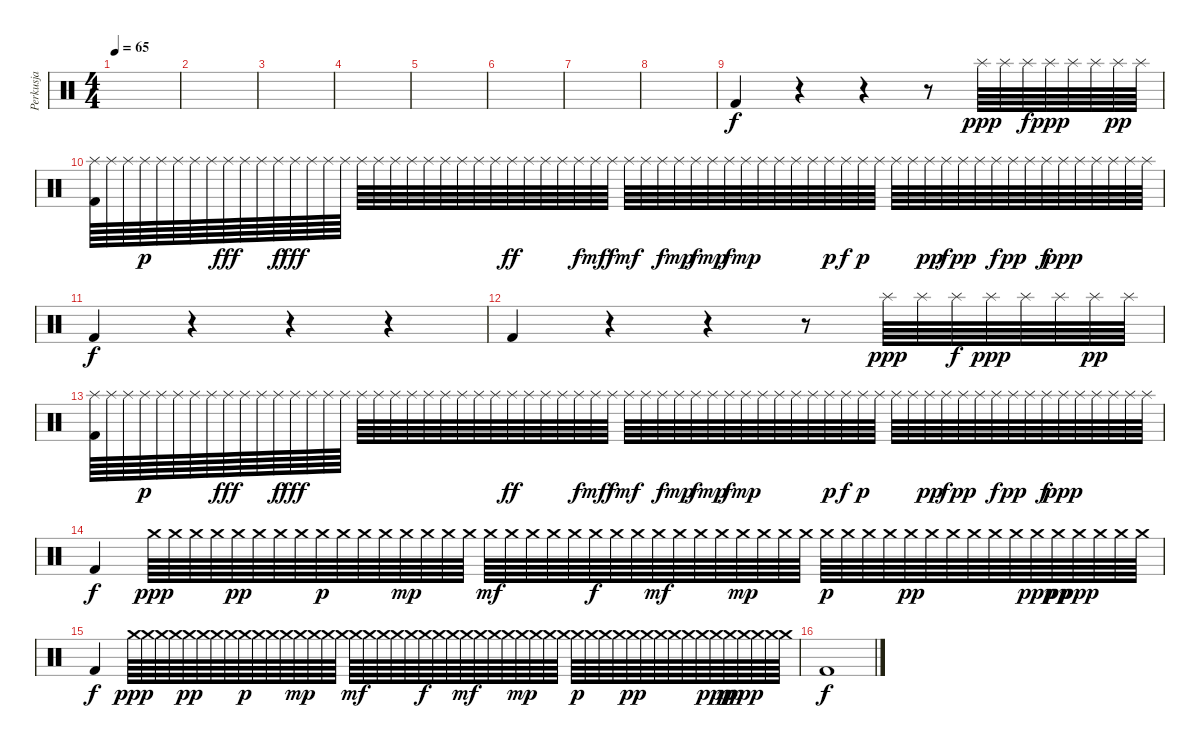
\track ("Perkusja" "Perkusja") {instrument percussion}
\staff {score}
\articulation defaults
\ts (4 4)
\tempo 65
\clef neutral
\ks c
|
|
|
|
|
|
|
|
"Kick (hit) 2".4 r.4 r.4 r.8 "Splash (hit)".64{dy ppp} "Splash (hit)".64 "Splash (hit)".64{dy f} "Splash (hit)".64{dy ppp} "Splash (hit)".64 "Splash (hit)".64 "Splash (hit)".64{dy pp} "Splash (hit)".64 |
("Kick (hit) 2" "Splash (hit)").64 "Splash (hit)".64 "Splash (hit)".64 "Splash (hit)".64{dy p} "Splash (hit)".64 "Splash (hit)".64 "Splash (hit)".64 "Splash (hit)".64 "Splash (hit)".64{dy fff} "Splash (hit)".64 "Splash (hit)".64 "Splash (hit)".64{dy f} "Splash (hit)".64{dy fff} "Splash (hit)".64 "Splash (hit)".64 "Splash (hit)".64 "Splash (hit)".64 "Splash (hit)".64 "Splash (hit)".64 "Splash (hit)".64 "Splash (hit)".64 "Splash (hit)".64 "Splash (hit)".64 "Splash (hit)".64 "Splash (hit)".64 "Splash (hit)".64{dy ff} "Splash (hit)".64 "Splash (hit)".64 "Splash (hit)".64 "Splash (hit)".64{dy f} "Splash (hit)".64{dy mf} "Splash (hit)".64{dy f} "Splash (hit)".64{dy mf} "Splash (hit)".64 "Splash (hit)".64{dy f} "Splash (hit)".64{dy mp} "Splash (hit)".64{dy f} "Splash (hit)".64{dy mp} "Splash (hit)".64{dy f} "Splash (hit)".64{dy mp} "Splash (hit)".64 "Splash (hit)".64 "Splash (hit)".64 "Splash (hit)".64 "Splash (hit)".64{dy p} "Splash (hit)".64{dy f} "Splash (hit)".64{dy p} "Splash (hit)".64 "Splash (hit)".64 "Splash (hit)".64 "Splash (hit)".64{dy pp} "Splash (hit)".64{dy f} "Splash (hit)".64{dy pp} "Splash (hit)".64 "Splash (hit)".64{dy f} "Splash (hit)".64{dy pp} "Splash (hit)".64 "Splash (hit)".64{dy f} "Splash (hit)".64{dy ppp} "Splash (hit)".64 "Splash (hit)".64 "Splash (hit)".64 "Splash (hit)".64 "Splash (hit)".64 |
"Kick (hit) 2".4{dy f} r.4 r.4 r.4 |
"Kick (hit) 2".4 r.4 r.4 r.8 "Splash (hit)".64{dy ppp} "Splash (hit)".64 "Splash (hit)".64{dy f} "Splash (hit)".64{dy ppp} "Splash (hit)".64 "Splash (hit)".64 "Splash (hit)".64{dy pp} "Splash (hit)".64 |
("Kick (hit) 2" "Splash (hit)").64 "Splash (hit)".64 "Splash (hit)".64 "Splash (hit)".64{dy p} "Splash (hit)".64 "Splash (hit)".64 "Splash (hit)".64 "Splash (hit)".64 "Splash (hit)".64{dy fff} "Splash (hit)".64 "Splash (hit)".64 "Splash (hit)".64{dy f} "Splash (hit)".64{dy fff} "Splash (hit)".64 "Splash (hit)".64 "Splash (hit)".64 "Splash (hit)".64 "Splash (hit)".64 "Splash (hit)".64 "Splash (hit)".64 "Splash (hit)".64 "Splash (hit)".64 "Splash (hit)".64 "Splash (hit)".64 "Splash (hit)".64 "Splash (hit)".64{dy ff} "Splash (hit)".64 "Splash (hit)".64 "Splash (hit)".64 "Splash (hit)".64{dy f} "Splash (hit)".64{dy mf} "Splash (hit)".64{dy f} "Splash (hit)".64{dy mf} "Splash (hit)".64 "Splash (hit)".64{dy f} "Splash (hit)".64{dy mp} "Splash (hit)".64{dy f} "Splash (hit)".64{dy mp} "Splash (hit)".64{dy f} "Splash (hit)".64{dy mp} "Splash (hit)".64 "Splash (hit)".64 "Splash (hit)".64 "Splash (hit)".64 "Splash (hit)".64{dy p} "Splash (hit)".64{dy f} "Splash (hit)".64{dy p} "Splash (hit)".64 "Splash (hit)".64 "Splash (hit)".64 "Splash (hit)".64{dy pp} "Splash (hit)".64{dy f} "Splash (hit)".64{dy pp} "Splash (hit)".64 "Splash (hit)".64{dy f} "Splash (hit)".64{dy pp} "Splash (hit)".64 "Splash (hit)".64{dy f} "Splash (hit)".64{dy ppp} "Splash (hit)".64 "Splash (hit)".64 "Splash (hit)".64 "Splash (hit)".64 "Splash (hit)".64 |
"Kick (hit) 2".4{dy f} "Crash medium (hit)".64{dy ppp} "Crash medium (hit)".64 "Crash medium (hit)".64 "Crash medium (hit)".64 "Crash medium (hit)".64{dy pp} "Crash medium (hit)".64 "Crash medium (hit)".64 "Crash medium (hit)".64 "Crash medium (hit)".64{dy p} "Crash medium (hit)".64 "Crash medium (hit)".64 "Crash medium (hit)".64 "Crash medium (hit)".64{dy mp} "Crash medium (hit)".64 "Crash medium (hit)".64 "Crash medium (hit)".64 "Crash medium (hit)".64{dy mf} "Crash medium (hit)".64 "Crash medium (hit)".64 "Crash medium (hit)".64 "Crash medium (hit)".64 "Crash medium (hit)".64{dy f} "Crash medium (hit)".64 "Crash medium (hit)".64 "Crash medium (hit)".64{dy mf} "Crash medium (hit)".64 "Crash medium (hit)".64 "Crash medium (hit)".64 "Crash medium (hit)".64{dy mp} "Crash medium (hit)".64 "Crash medium (hit)".64 "Crash medium (hit)".64 "Crash medium (hit)".64{dy p} "Crash medium (hit)".64 "Crash medium (hit)".64 "Crash medium (hit)".64 "Crash medium (hit)".64{dy pp} "Crash medium (hit)".64 "Crash medium (hit)".64 "Crash medium (hit)".64 "Crash medium (hit)".64 "Crash medium (hit)".64 "Crash medium (hit)".64{dy ppp} "Crash medium (hit)".64{dy pp} "Crash medium (hit)".64{dy ppp} "Crash medium (hit)".64 "Crash medium (hit)".64 "Crash medium (hit)".64 |
"Kick (hit) 2".4{dy f} "Crash medium (hit)".64{dy ppp} "Crash medium (hit)".64 "Crash medium (hit)".64 "Crash medium (hit)".64 "Crash medium (hit)".64{dy pp} "Crash medium (hit)".64 "Crash medium (hit)".64 "Crash medium (hit)".64 "Crash medium (hit)".64{dy p} "Crash medium (hit)".64 "Crash medium (hit)".64 "Crash medium (hit)".64 "Crash medium (hit)".64{dy mp} "Crash medium (hit)".64 "Crash medium (hit)".64 "Crash medium (hit)".64 "Crash medium (hit)".64{dy mf} "Crash medium (hit)".64 "Crash medium (hit)".64 "Crash medium (hit)".64 "Crash medium (hit)".64 "Crash medium (hit)".64{dy f} "Crash medium (hit)".64 "Crash medium (hit)".64 "Crash medium (hit)".64{dy mf} "Crash medium (hit)".64 "Crash medium (hit)".64 "Crash medium (hit)".64 "Crash medium (hit)".64{dy mp} "Crash medium (hit)".64 "Crash medium (hit)".64 "Crash medium (hit)".64 "Crash medium (hit)".64{dy p} "Crash medium (hit)".64 "Crash medium (hit)".64 "Crash medium (hit)".64 "Crash medium (hit)".64{dy pp} "Crash medium (hit)".64 "Crash medium (hit)".64 "Crash medium (hit)".64 "Crash medium (hit)".64 "Crash medium (hit)".64 "Crash medium (hit)".64{dy ppp} "Crash medium (hit)".64{dy pp} "Crash medium (hit)".64{dy ppp} "Crash medium (hit)".64 "Crash medium (hit)".64 "Crash medium (hit)".64 |
"Kick (hit) 2".1{dy f}
